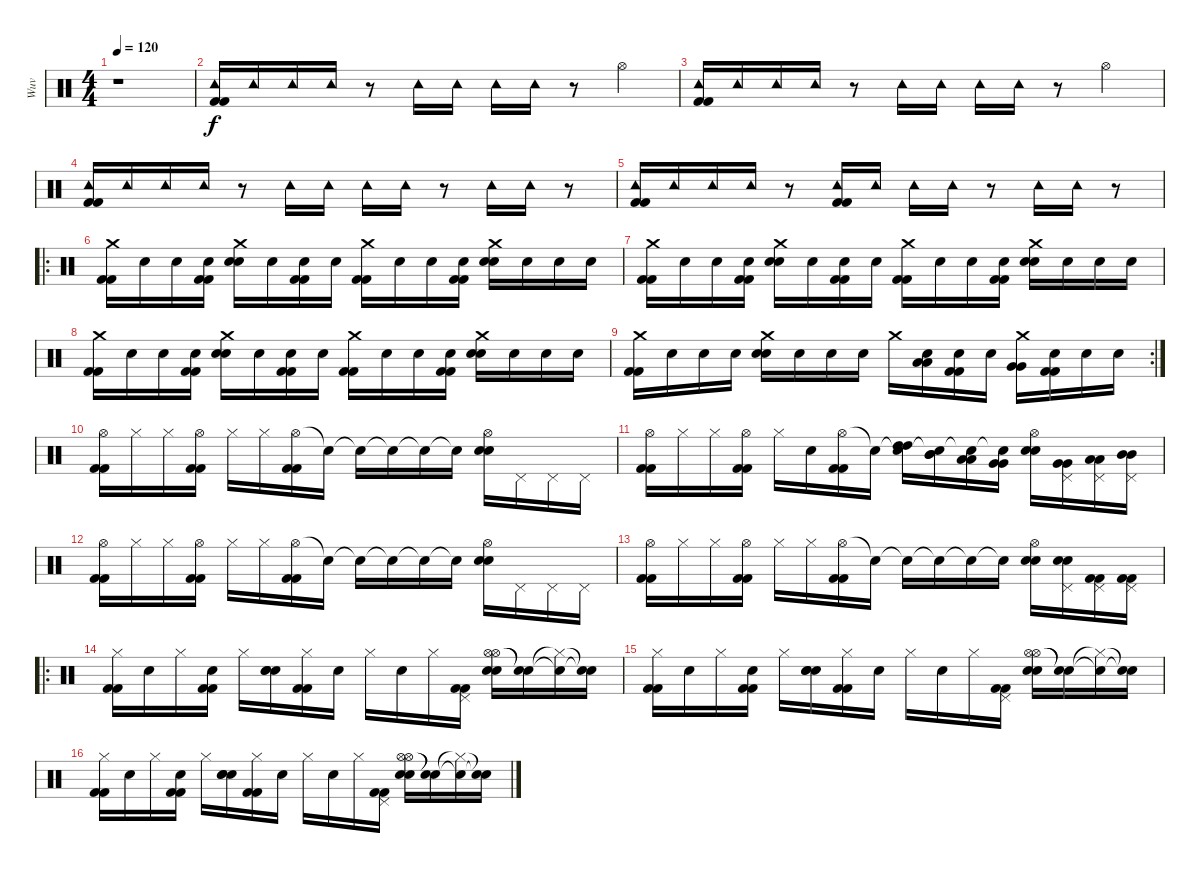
\track ("Wuv" "Wuv") {instrument percussion}
\staff {score}
\articulation defaults
\ts (4 4)
\tempo 120
\clef neutral
\ks c
r.1{dy f} |
("Tambourine (hit)" "Kick (hit) 2" "Kick (hit) 2").16 "Tambourine (hit)".16 "Tambourine (hit)".16 "Tambourine (hit)".16 r.8 "Tambourine (hit)".16 "Tambourine (hit)".16 "Tambourine (hit)".16 "Tambourine (hit)".16 r.8 "Hi-Hat (open)".4 |
("Tambourine (hit)" "Kick (hit) 2" "Kick (hit) 2").16 "Tambourine (hit)".16 "Tambourine (hit)".16 "Tambourine (hit)".16 r.8 "Tambourine (hit)".16 "Tambourine (hit)".16 "Tambourine (hit)".16 "Tambourine (hit)".16 r.8 "Hi-Hat (open)".4 |
("Tambourine (hit)" "Kick (hit) 2" "Kick (hit) 2").16 "Tambourine (hit)".16 "Tambourine (hit)".16 "Tambourine (hit)".16 r.8 "Tambourine (hit)".16 "Tambourine (hit)".16 "Tambourine (hit)".16 "Tambourine (hit)".16 r.8 "Tambourine (hit)".16 "Tambourine (hit)".16 r.8 |
("Tambourine (hit)" "Kick (hit) 2" "Kick (hit) 2").16 "Tambourine (hit)".16 "Tambourine (hit)".16 "Tambourine (hit)".16 r.8 ("Tambourine (hit)" "Kick (hit) 2" "Kick (hit) 2").16 "Tambourine (hit)".16 "Tambourine (hit)".16 "Tambourine (hit)".16 r.8 "Tambourine (hit)".16 "Tambourine (hit)".16 r.8 |
\ro
("Crash medium (hit)" "Kick (hit) 2" "Kick (hit) 2").16 "Snare (hit)".16 "Snare (hit)".16 ("Snare (hit)" "Kick (hit) 2" "Kick (hit) 2").16 ("Crash medium (hit)" "Electric Snare (hit)" "Electric Snare (hit)").16 "Snare (hit)".16 ("Snare (hit)" "Kick (hit) 2" "Kick (hit) 2").16 "Snare (hit)".16 ("Crash medium (hit)" "Kick (hit) 2" "Kick (hit) 2").16 "Snare (hit)".16 "Snare (hit)".16 ("Snare (hit)" "Kick (hit) 2" "Kick (hit) 2").16 ("Crash medium (hit)" "Electric Snare (hit)" "Electric Snare (hit)").16 "Snare (hit)".16 "Snare (hit)".16 "Snare (hit)".16 |
("Crash medium (hit)" "Kick (hit) 2" "Kick (hit) 2").16 "Snare (hit)".16 "Snare (hit)".16 ("Snare (hit)" "Kick (hit) 2" "Kick (hit) 2").16 ("Crash medium (hit)" "Electric Snare (hit)" "Electric Snare (hit)").16 "Snare (hit)".16 ("Snare (hit)" "Kick (hit) 2" "Kick (hit) 2").16 "Snare (hit)".16 ("Crash medium (hit)" "Kick (hit) 2" "Kick (hit) 2").16 "Snare (hit)".16 "Snare (hit)".16 ("Snare (hit)" "Kick (hit) 2" "Kick (hit) 2").16 ("Crash medium (hit)" "Electric Snare (hit)" "Electric Snare (hit)").16 "Snare (hit)".16 "Snare (hit)".16 "Snare (hit)".16 |
("Crash medium (hit)" "Kick (hit) 2" "Kick (hit) 2").16 "Snare (hit)".16 "Snare (hit)".16 ("Snare (hit)" "Kick (hit) 2" "Kick (hit) 2").16 ("Crash medium (hit)" "Electric Snare (hit)" "Electric Snare (hit)").16 "Snare (hit)".16 ("Snare (hit)" "Kick (hit) 2" "Kick (hit) 2").16 "Snare (hit)".16 ("Crash medium (hit)" "Kick (hit) 2" "Kick (hit) 2").16 "Snare (hit)".16 "Snare (hit)".16 ("Snare (hit)" "Kick (hit) 2" "Kick (hit) 2").16 ("Crash medium (hit)" "Electric Snare (hit)" "Electric Snare (hit)").16 "Snare (hit)".16 "Snare (hit)".16 "Snare (hit)".16 |
\rc 2
("Crash medium (hit)" "Kick (hit) 2" "Kick (hit) 2").16 "Snare (hit)".16 "Snare (hit)".16 "Snare (hit)".16 ("Crash medium (hit)" "Electric Snare (hit)" "Electric Snare (hit)").16 "Snare (hit)".16 "Snare (hit)".16 "Snare (hit)".16 "Crash medium (hit)".16 ("Snare (hit)" "Low Tom (hit)" "Low Tom (hit)").16 ("Snare (hit)" "Kick (hit) 2" "Kick (hit) 2").16 "Snare (hit)".16 ("Crash medium (hit)" "Very Low Tom (hit)" "Very Low Tom (hit)").16 ("Snare (hit)" "Kick (hit) 2" "Kick (hit) 2").16 "Snare (hit)".16 "Snare (hit)".16 |
("Hi-Hat (open)" "Kick (hit) 2" "Kick (hit) 2").16 "Hi-Hat (closed)".16 "Hi-Hat (closed)".16 ("Hi-Hat (open)" "Kick (hit) 2" "Kick (hit) 2").16 "Hi-Hat (closed)".16 "Hi-Hat (closed)".16 ("Hi-Hat (open)" "Kick (hit) 2" "Kick (hit) 2").16 "Snare (hit)"{t}.16 "Snare (hit)"{t}.16 "Snare (hit)"{t}.16 "Snare (hit)"{t}.16 "Snare (hit)"{t}.16 ("Hi-Hat (open)" "Electric Snare (hit)" "Electric Snare (hit)").16 "Pedal Hi-Hat (hit)".16 "Pedal Hi-Hat (hit)".16 "Pedal Hi-Hat (hit)".16 |
("Hi-Hat (open)" "Kick (hit) 2" "Kick (hit) 2").16 "Hi-Hat (closed)".16 "Hi-Hat (closed)".16 ("Hi-Hat (open)" "Kick (hit) 2" "Kick (hit) 2").16 "Hi-Hat (closed)".16 "Snare (hit)".16 ("Hi-Hat (open)" "Kick (hit) 2" "Kick (hit) 2").16 "Snare (hit)"{t}.16 ("Snare (hit)"{t} "High Tom (hit)" "High Tom (hit)").16 ("Snare (hit)"{t} "Mid Tom (hit)" "Mid Tom (hit)").16 ("Snare (hit)"{t} "Low Tom (hit)" "Low Tom (hit)").16 ("Snare (hit)"{t} "Very Low Tom (hit)" "Very Low Tom (hit)").16 ("Hi-Hat (open)" "Electric Snare (hit)" "Electric Snare (hit)").16 ("Pedal Hi-Hat (hit)" "Very Low Tom (hit)" "Very Low Tom (hit)").16 ("Pedal Hi-Hat (hit)" "Low Tom (hit)" "Low Tom (hit)").16 ("Pedal Hi-Hat (hit)" "Mid Tom (hit)" "Mid Tom (hit)").16 |
("Hi-Hat (open)" "Kick (hit) 2" "Kick (hit) 2").16 "Hi-Hat (closed)".16 "Hi-Hat (closed)".16 ("Hi-Hat (open)" "Kick (hit) 2" "Kick (hit) 2").16 "Hi-Hat (closed)".16 "Hi-Hat (closed)".16 ("Hi-Hat (open)" "Kick (hit) 2" "Kick (hit) 2").16 "Snare (hit)"{t}.16 "Snare (hit)"{t}.16 "Snare (hit)"{t}.16 "Snare (hit)"{t}.16 "Snare (hit)"{t}.16 ("Hi-Hat (open)" "Electric Snare (hit)" "Electric Snare (hit)").16 "Pedal Hi-Hat (hit)".16 "Pedal Hi-Hat (hit)".16 "Pedal Hi-Hat (hit)".16 |
("Hi-Hat (open)" "Kick (hit) 2" "Kick (hit) 2").16 "Hi-Hat (closed)".16 "Hi-Hat (closed)".16 ("Hi-Hat (open)" "Kick (hit) 2" "Kick (hit) 2").16 "Hi-Hat (closed)".16 "Hi-Hat (closed)".16 ("Hi-Hat (open)" "Kick (hit) 2" "Kick (hit) 2").16 "Snare (hit)"{t}.16 "Snare (hit)"{t}.16 "Snare (hit)"{t}.16 "Snare (hit)"{t}.16 "Snare (hit)"{t}.16 ("Hi-Hat (open)" "Electric Snare (hit)" "Electric Snare (hit)").16 ("Pedal Hi-Hat (hit)" "Electric Snare (hit)" "Electric Snare (hit)").16 ("Pedal Hi-Hat (hit)" "Kick (hit) 2" "Kick (hit) 2").16 ("Pedal Hi-Hat (hit)" "Kick (hit) 2" "Kick (hit) 2").16 |
\ro
("Hi-Hat (closed)" "Kick (hit) 2" "Kick (hit) 2").16 "Snare (hit)".16 "Hi-Hat (closed)".16 ("Snare (hit)" "Kick (hit) 2" "Kick (hit) 2").16 "Hi-Hat (closed)".16 ("Snare (hit)" "Electric Snare (hit)" "Electric Snare (hit)").16 ("Hi-Hat (closed)" "Kick (hit) 2" "Kick (hit) 2").16 "Snare (hit)".16 "Hi-Hat (closed)".16 "Snare (hit)".16 "Hi-Hat (closed)".16 ("Pedal Hi-Hat (hit)" "Kick (hit) 2" "Kick (hit) 2").16 ("Hi-Hat (open)" "Hi-Hat (open)" "Electric Snare (hit)" "Electric Snare (hit)").16 ("Snare (hit)"{t} "Snare (hit)"{t}).16 ("Hi-Hat (closed)"{t} "Snare (hit)"{t}).16 ("Snare (hit)"{t} "Snare (hit)"{t}).16 |
("Hi-Hat (closed)" "Kick (hit) 2" "Kick (hit) 2").16 "Snare (hit)".16 "Hi-Hat (closed)".16 ("Snare (hit)" "Kick (hit) 2" "Kick (hit) 2").16 "Hi-Hat (closed)".16 ("Snare (hit)" "Electric Snare (hit)" "Electric Snare (hit)").16 ("Hi-Hat (closed)" "Kick (hit) 2" "Kick (hit) 2").16 "Snare (hit)".16 "Hi-Hat (closed)".16 "Snare (hit)".16 "Hi-Hat (closed)".16 ("Pedal Hi-Hat (hit)" "Kick (hit) 2" "Kick (hit) 2").16 ("Hi-Hat (open)" "Hi-Hat (open)" "Electric Snare (hit)" "Electric Snare (hit)").16 ("Snare (hit)"{t} "Snare (hit)"{t}).16 ("Hi-Hat (closed)"{t} "Snare (hit)"{t}).16 ("Snare (hit)"{t} "Snare (hit)"{t}).16 |
("Hi-Hat (closed)" "Kick (hit) 2" "Kick (hit) 2").16 "Snare (hit)".16 "Hi-Hat (closed)".16 ("Snare (hit)" "Kick (hit) 2" "Kick (hit) 2").16 "Hi-Hat (closed)".16 ("Snare (hit)" "Electric Snare (hit)" "Electric Snare (hit)").16 ("Hi-Hat (closed)" "Kick (hit) 2" "Kick (hit) 2").16 "Snare (hit)".16 "Hi-Hat (closed)".16 "Snare (hit)".16 "Hi-Hat (closed)".16 ("Pedal Hi-Hat (hit)" "Kick (hit) 2" "Kick (hit) 2").16 ("Hi-Hat (open)" "Hi-Hat (open)" "Electric Snare (hit)" "Electric Snare (hit)").16 ("Snare (hit)"{t} "Snare (hit)"{t}).16 ("Hi-Hat (closed)"{t} "Snare (hit)"{t}).16 ("Snare (hit)"{t} "Snare (hit)"{t}).16
